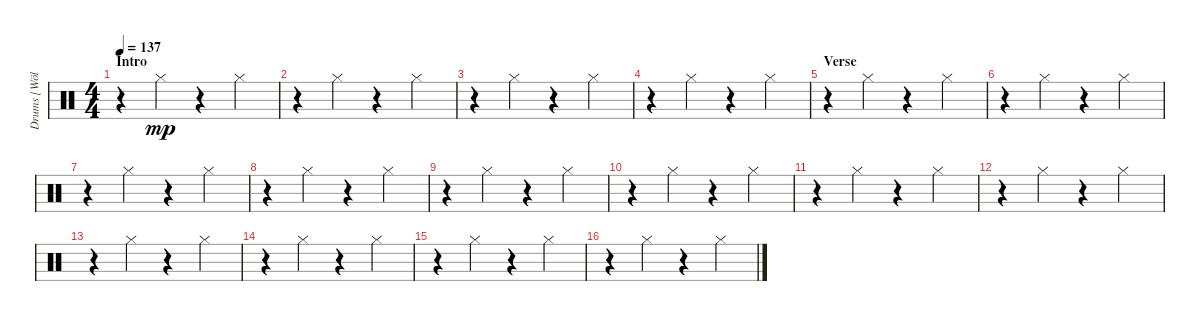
\track ("Drums [Wölli]" "Drums [Wöl") {instrument percussion}
\staff {score}
\articulation defaults
\ts (4 4)
\section ("" "Intro")
\tempo 137
\clef neutral
\ks c
r.4{dy mp} "Hi-Hat (closed)".4 r.4 "Hi-Hat (closed)".4 |
r.4 "Hi-Hat (closed)".4 r.4 "Hi-Hat (closed)".4 |
r.4 "Hi-Hat (closed)".4 r.4 "Hi-Hat (closed)".4 |
r.4 "Hi-Hat (closed)".4 r.4 "Hi-Hat (closed)".4 |
\section ("" "Verse")
r.4 "Hi-Hat (closed)".4 r.4 "Hi-Hat (closed)".4 |
r.4 "Hi-Hat (closed)".4 r.4 "Hi-Hat (closed)".4 |
r.4 "Hi-Hat (closed)".4 r.4 "Hi-Hat (closed)".4 |
r.4 "Hi-Hat (closed)".4 r.4 "Hi-Hat (closed)".4 |
r.4 "Hi-Hat (closed)".4 r.4 "Hi-Hat (closed)".4 |
r.4 "Hi-Hat (closed)".4 r.4 "Hi-Hat (closed)".4 |
r.4 "Hi-Hat (closed)".4 r.4 "Hi-Hat (closed)".4 |
r.4 "Hi-Hat (closed)".4 r.4 "Hi-Hat (closed)".4 |
r.4 "Hi-Hat (closed)".4 r.4 "Hi-Hat (closed)".4 |
r.4 "Hi-Hat (closed)".4 r.4 "Hi-Hat (closed)".4 |
r.4 "Hi-Hat (closed)".4 r.4 "Hi-Hat (closed)".4 |
r.4 "Hi-Hat (closed)".4 r.4 "Hi-Hat (closed)".4
